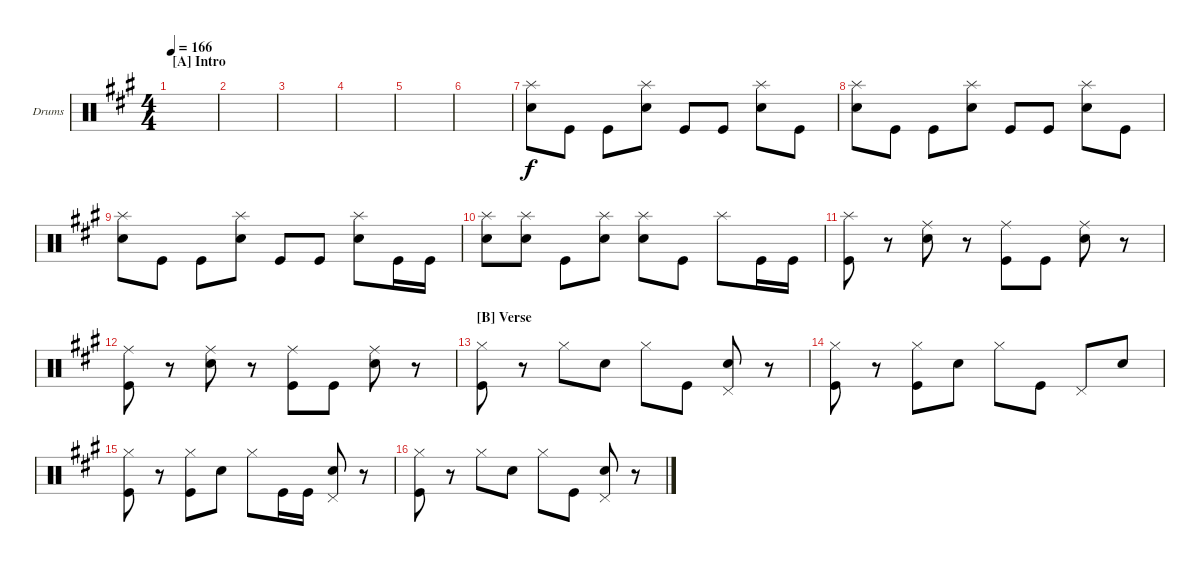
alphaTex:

\defaultSystemsLayout 4
\bracketExtendMode groupsimilarinstruments
\firstSystemTrackNameOrientation horizontal
\otherSystemsTrackNameOrientation horizontal
\track ("Drumkit" "Drums") {instrument percussion}
\staff {score}
\articulation defaults
\ts (4 4)
\section ("A" "Intro")
\tempo 166
\clef neutral
\ks a
|
|
|
|
|
|
("Snare (hit) 2" "Splash (hit)").8 "Kick (hit)".8 "Kick (hit)".8 ("Snare (hit) 2" "Splash (hit)").8 "Kick (hit)".8 "Kick (hit)".8 ("Snare (hit) 2" "Splash (hit)").8 "Kick (hit)".8 |
("Snare (hit) 2" "Splash (hit)").8 "Kick (hit)".8 "Kick (hit)".8 ("Snare (hit) 2" "Splash (hit)").8 "Kick (hit)".8 "Kick (hit)".8 ("Snare (hit) 2" "Splash (hit)").8 "Kick (hit)".8 |
("Snare (hit) 2" "Splash (hit)").8 "Kick (hit)".8 "Kick (hit)".8 ("Snare (hit) 2" "Splash (hit)").8 "Kick (hit)".8 "Kick (hit)".8 ("Snare (hit) 2" "Splash (hit)").8 "Kick (hit)".16 "Kick (hit)".16 |
("Splash (hit)" "Snare (hit) 2").8 ("Splash (hit)" "Snare (hit) 2").8 "Kick (hit)".8 ("Splash (hit)" "Snare (hit) 2").8 ("Splash (hit)" "Snare (hit) 2").8 "Kick (hit)".8 "Splash (hit)".8 "Kick (hit)".16 "Kick (hit)".16 |
("Splash (hit)" "Kick (hit)").8 r.8 ("Snare (hit) 2" "Ride (middle)").8 r.8 ("Kick (hit)" "Ride (middle)").8 "Kick (hit)".8 ("Snare (hit) 2" "Ride (middle)").8 r.8 |
("Kick (hit)" "Ride (middle)").8 r.8 ("Snare (hit) 2" "Ride (middle)").8 r.8 ("Kick (hit)" "Ride (middle)").8 "Kick (hit)".8 ("Snare (hit) 2" "Ride (middle)").8 r.8 |
\section ("B" "Verse")
("Kick (hit)" "Hi-Hat (closed)").8 r.8 "Hi-Hat (closed)".8 "Snare (hit) 2".8 "Hi-Hat (closed)".8 "Kick (hit)".8 ("Pedal Hi-Hat (hit)" "Snare (hit) 2").8 r.8 |
("Kick (hit)" "Hi-Hat (closed)").8 r.8 ("Hi-Hat (closed)" "Kick (hit)").8 "Snare (hit) 2".8 "Hi-Hat (closed)".8 "Kick (hit)".8 "Pedal Hi-Hat (hit)".8 "Snare (hit) 2".8 |
("Kick (hit)" "Hi-Hat (closed)").8 r.8 ("Hi-Hat (closed)" "Kick (hit)").8 "Snare (hit) 2".8 "Hi-Hat (closed)".8 "Kick (hit)".16 "Kick (hit)".16 ("Pedal Hi-Hat (hit)" "Snare (hit) 2").8 r.8 |
("Kick (hit)" "Hi-Hat (closed)").8 r.8 "Hi-Hat (closed)".8 "Snare (hit) 2".8 "Hi-Hat (closed)".8 "Kick (hit)".8 ("Pedal Hi-Hat (hit)" "Snare (hit) 2").8 r.8
